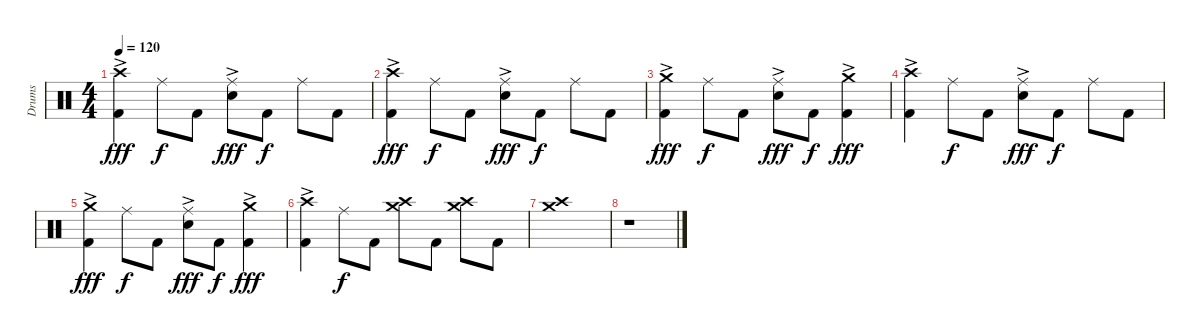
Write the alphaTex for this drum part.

\track ("Drums" "Drums") {instrument percussion}
\staff {score}
\articulation defaults
\ts (4 4)
\tempo 120
\clef neutral
\ks c
("Crash high (hit)"{ac} "Kick (hit) 2").4{dy fff} "Ride (middle)".8{dy f} "Kick (hit) 2".8 ("Ride (middle)" "Electric Snare (hit)"{ac}).8{dy fff} "Kick (hit) 2".8{dy f} "Ride (middle)".8 "Kick (hit) 2".8 |
("Crash high (hit)"{ac} "Kick (hit) 2").4{dy fff} "Ride (middle)".8{dy f} "Kick (hit) 2".8 ("Ride (middle)" "Electric Snare (hit)"{ac}).8{dy fff} "Kick (hit) 2".8{dy f} "Ride (middle)".8 "Kick (hit) 2".8 |
("Crash medium (hit)"{ac} "Kick (hit) 2").4{dy fff} "Ride (middle)".8{dy f} "Kick (hit) 2".8 ("Ride (middle)" "Electric Snare (hit)"{ac}).8{dy fff} "Kick (hit) 2".8{dy f} ("Crash medium (hit)"{ac} "Kick (hit) 2").4{dy fff} |
("Crash high (hit)"{ac} "Kick (hit) 2").4 "Ride (middle)".8{dy f} "Kick (hit) 2".8 ("Ride (middle)" "Electric Snare (hit)"{ac}).8{dy fff} "Kick (hit) 2".8{dy f} "Ride (middle)".8 "Kick (hit) 2".8 |
("Crash medium (hit)"{ac} "Kick (hit) 2").4{dy fff} "Ride (middle)".8{dy f} "Kick (hit) 2".8 ("Ride (middle)" "Electric Snare (hit)"{ac}).8{dy fff} "Kick (hit) 2".8{dy f} ("Crash medium (hit)"{ac} "Kick (hit) 2").4{dy fff} |
("Crash high (hit)"{ac} "Kick (hit) 2").4 "Ride (middle)".8{dy f} "Kick (hit) 2".8 ("Crash medium (hit)" "Crash high (hit)").8 "Kick (hit) 2".8 ("Crash medium (hit)" "Crash high (hit)").8 "Kick (hit) 2".8 |
("Crash medium (hit)" "Crash high (hit)").1 |
r.1
